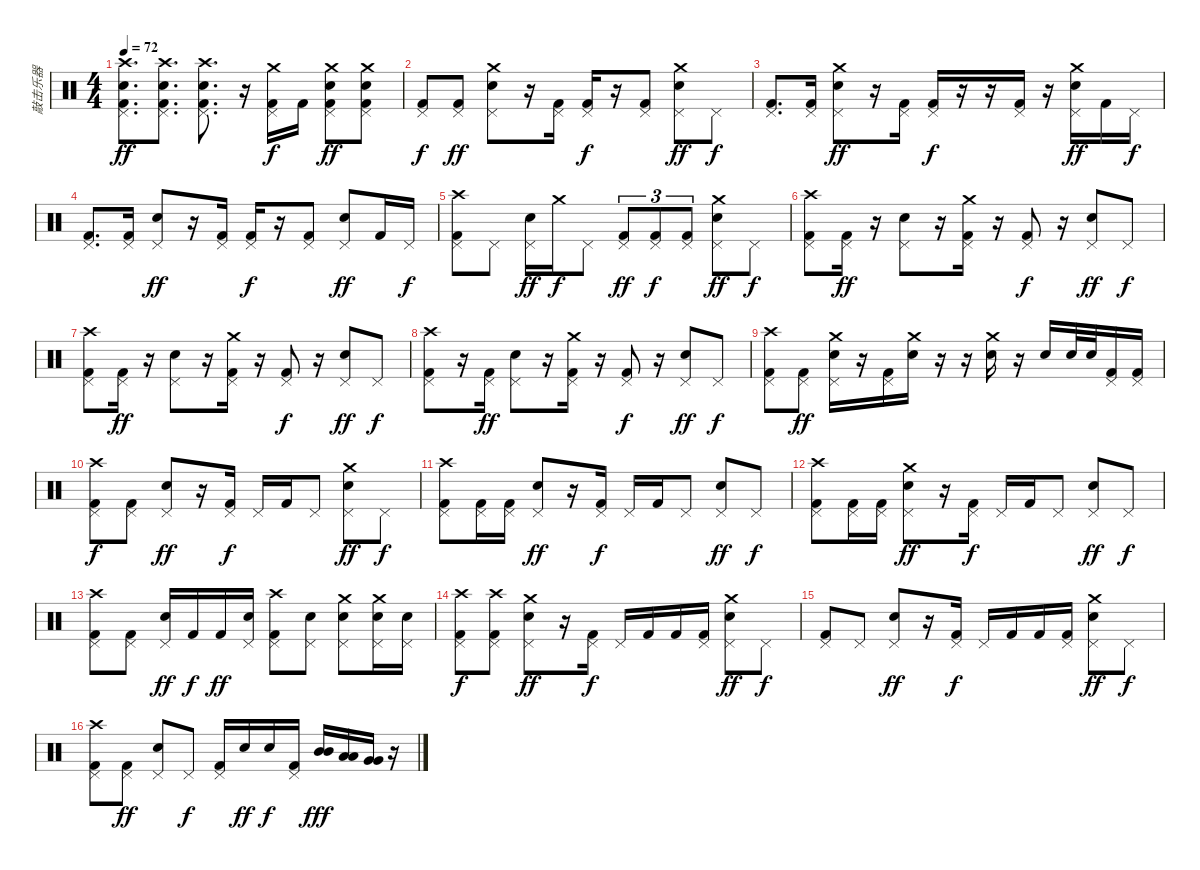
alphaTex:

\track ("敲击乐器" "敲击乐器") {instrument percussion}
\staff {score}
\articulation defaults
\ts (4 4)
\tempo 72
\clef neutral
\ks c
("Pedal Hi-Hat (hit)" "Kick (hit) 2" "Electric Snare (hit)" "Crash high (hit)").8{d dy ff} ("Pedal Hi-Hat (hit)" "Kick (hit) 2" "Electric Snare (hit)" "Crash high (hit)").8{d} ("Pedal Hi-Hat (hit)" "Kick (hit) 2" "Electric Snare (hit)" "Crash high (hit)").8{d} r.16 ("Pedal Hi-Hat (hit)" "Kick (hit) 2" "Crash medium (hit)").16{dy f} "Kick (hit) 2".16 ("Pedal Hi-Hat (hit)" "Kick (hit) 2" "Electric Snare (hit)" "Crash medium (hit)").8{dy ff} ("Pedal Hi-Hat (hit)" "Kick (hit) 2" "Electric Snare (hit)" "Crash medium (hit)").8 |
("Pedal Hi-Hat (hit)" "Kick (hit) 2").8{dy f} ("Pedal Hi-Hat (hit)" "Kick (hit) 2").8{dy ff} ("Pedal Hi-Hat (hit)" "Electric Snare (hit)" "Crash medium (hit)").8 r.16 ("Pedal Hi-Hat (hit)" "Kick (hit) 2").16 ("Pedal Hi-Hat (hit)" "Kick (hit) 2").16{dy f} r.16 ("Pedal Hi-Hat (hit)" "Kick (hit) 2").8 ("Pedal Hi-Hat (hit)" "Electric Snare (hit)" "Crash medium (hit)").8{dy ff} "Pedal Hi-Hat (hit)".8{dy f} |
("Pedal Hi-Hat (hit)" "Kick (hit) 2").8{d} ("Pedal Hi-Hat (hit)" "Kick (hit) 2").16 ("Pedal Hi-Hat (hit)" "Electric Snare (hit)" "Crash medium (hit)").8{dy ff} r.16 ("Pedal Hi-Hat (hit)" "Kick (hit) 2").16 ("Pedal Hi-Hat (hit)" "Kick (hit) 2").16{dy f} r.16 r.16 ("Pedal Hi-Hat (hit)" "Kick (hit) 2").16 r.16 ("Pedal Hi-Hat (hit)" "Electric Snare (hit)" "Crash medium (hit)").16{dy ff} "Kick (hit) 2".16 "Pedal Hi-Hat (hit)".16{dy f} |
("Pedal Hi-Hat (hit)" "Kick (hit) 2").8{d} ("Pedal Hi-Hat (hit)" "Kick (hit) 2").16 ("Pedal Hi-Hat (hit)" "Electric Snare (hit)").8{dy ff} r.16 ("Pedal Hi-Hat (hit)" "Kick (hit) 2").16 ("Pedal Hi-Hat (hit)" "Kick (hit) 2").16{dy f} r.16 ("Pedal Hi-Hat (hit)" "Kick (hit) 2").8 ("Pedal Hi-Hat (hit)" "Electric Snare (hit)").8{dy ff} "Kick (hit) 2".16 "Pedal Hi-Hat (hit)".16{dy f} |
("Pedal Hi-Hat (hit)" "Kick (hit) 2" "Crash high (hit)").8 "Pedal Hi-Hat (hit)".8 ("Pedal Hi-Hat (hit)" "Electric Snare (hit)").16{dy ff} "Crash medium (hit)".16{dy f} "Pedal Hi-Hat (hit)".8 ("Pedal Hi-Hat (hit)" "Kick (hit) 2").8{tu (3 2) dy ff} ("Pedal Hi-Hat (hit)" "Kick (hit) 2").8{tu (3 2) dy f} ("Pedal Hi-Hat (hit)" "Kick (hit) 2").8{tu (3 2)} ("Pedal Hi-Hat (hit)" "Electric Snare (hit)" "Crash medium (hit)").8{dy ff} "Pedal Hi-Hat (hit)".8{dy f} |
("Pedal Hi-Hat (hit)" "Kick (hit) 2" "Crash high (hit)").8 ("Pedal Hi-Hat (hit)" "Kick (hit) 2").16{dy ff} r.16 ("Pedal Hi-Hat (hit)" "Electric Snare (hit)").8 r.16 ("Pedal Hi-Hat (hit)" "Kick (hit) 2" "Crash medium (hit)").16 r.16 ("Pedal Hi-Hat (hit)" "Kick (hit) 2").8{dy f} r.16 ("Pedal Hi-Hat (hit)" "Electric Snare (hit)").8{dy ff} "Pedal Hi-Hat (hit)".8{dy f} |
("Pedal Hi-Hat (hit)" "Kick (hit) 2" "Crash high (hit)").8 ("Pedal Hi-Hat (hit)" "Kick (hit) 2").16{dy ff} r.16 ("Pedal Hi-Hat (hit)" "Electric Snare (hit)").8 r.16 ("Pedal Hi-Hat (hit)" "Kick (hit) 2" "Crash medium (hit)").16 r.16 ("Pedal Hi-Hat (hit)" "Kick (hit) 2").8{dy f} r.16 ("Pedal Hi-Hat (hit)" "Electric Snare (hit)").8{dy ff} "Pedal Hi-Hat (hit)".8{dy f} |
("Pedal Hi-Hat (hit)" "Kick (hit) 2" "Crash high (hit)").8 r.16 ("Pedal Hi-Hat (hit)" "Kick (hit) 2").16{dy ff} ("Pedal Hi-Hat (hit)" "Electric Snare (hit)").8 r.16 ("Pedal Hi-Hat (hit)" "Kick (hit) 2" "Crash medium (hit)").16 r.16 ("Pedal Hi-Hat (hit)" "Kick (hit) 2").8{dy f} r.16 ("Pedal Hi-Hat (hit)" "Electric Snare (hit)").8{dy ff} "Pedal Hi-Hat (hit)".8{dy f} |
("Pedal Hi-Hat (hit)" "Kick (hit) 2" "Crash high (hit)").8 ("Pedal Hi-Hat (hit)" "Kick (hit) 2").8{dy ff} ("Pedal Hi-Hat (hit)" "Electric Snare (hit)" "Crash medium (hit)").16 r.16 ("Pedal Hi-Hat (hit)" "Kick (hit) 2").16 ("Electric Snare (hit)" "Crash medium (hit)").16 r.16 r.16 ("Electric Snare (hit)" "Crash medium (hit)").16 r.16 "Electric Snare (hit)".16 "Electric Snare (hit)".32 "Electric Snare (hit)".32 ("Pedal Hi-Hat (hit)" "Kick (hit) 2").16 ("Pedal Hi-Hat (hit)" "Kick (hit) 2").16 |
("Pedal Hi-Hat (hit)" "Kick (hit) 2" "Crash high (hit)").8{dy f} ("Pedal Hi-Hat (hit)" "Kick (hit) 2").8 ("Pedal Hi-Hat (hit)" "Electric Snare (hit)").8{dy ff} r.16 ("Pedal Hi-Hat (hit)" "Kick (hit) 2").16{dy f} "Pedal Hi-Hat (hit)".16 "Kick (hit) 2".16 "Pedal Hi-Hat (hit)".8 ("Pedal Hi-Hat (hit)" "Electric Snare (hit)" "Crash medium (hit)").8{dy ff} "Pedal Hi-Hat (hit)".8{dy f} |
("Pedal Hi-Hat (hit)" "Kick (hit) 2" "Crash high (hit)").8 ("Pedal Hi-Hat (hit)" "Kick (hit) 2").16 ("Pedal Hi-Hat (hit)" "Kick (hit) 2").16 ("Pedal Hi-Hat (hit)" "Electric Snare (hit)").8{dy ff} r.16 ("Pedal Hi-Hat (hit)" "Kick (hit) 2").16{dy f} "Pedal Hi-Hat (hit)".16 "Kick (hit) 2".16 "Pedal Hi-Hat (hit)".8 ("Pedal Hi-Hat (hit)" "Electric Snare (hit)").8{dy ff} "Pedal Hi-Hat (hit)".8{dy f} |
("Pedal Hi-Hat (hit)" "Kick (hit) 2" "Crash high (hit)").8 ("Pedal Hi-Hat (hit)" "Kick (hit) 2").16 ("Pedal Hi-Hat (hit)" "Kick (hit) 2").16 ("Pedal Hi-Hat (hit)" "Electric Snare (hit)" "Crash medium (hit)").8{dy ff} r.16 ("Pedal Hi-Hat (hit)" "Kick (hit) 2").16{dy f} "Pedal Hi-Hat (hit)".16 "Kick (hit) 2".16 "Pedal Hi-Hat (hit)".8 ("Pedal Hi-Hat (hit)" "Electric Snare (hit)").8{dy ff} "Pedal Hi-Hat (hit)".8{dy f} |
("Pedal Hi-Hat (hit)" "Kick (hit) 2" "Crash high (hit)").8 ("Pedal Hi-Hat (hit)" "Kick (hit) 2").8 ("Pedal Hi-Hat (hit)" "Electric Snare (hit)").16{dy ff} "Kick (hit) 2".16{dy f} "Kick (hit) 2".16{dy ff} ("Pedal Hi-Hat (hit)" "Electric Snare (hit)").16 ("Pedal Hi-Hat (hit)" "Kick (hit) 2" "Crash high (hit)").8 ("Pedal Hi-Hat (hit)" "Electric Snare (hit)").8 ("Pedal Hi-Hat (hit)" "Electric Snare (hit)" "Crash medium (hit)").8 ("Pedal Hi-Hat (hit)" "Electric Snare (hit)" "Crash medium (hit)").16 ("Pedal Hi-Hat (hit)" "Electric Snare (hit)").16 |
("Pedal Hi-Hat (hit)" "Kick (hit) 2" "Crash high (hit)").8{dy f} ("Pedal Hi-Hat (hit)" "Kick (hit) 2" "Crash high (hit)").8 ("Pedal Hi-Hat (hit)" "Electric Snare (hit)" "Crash medium (hit)").8{dy ff} r.16 ("Pedal Hi-Hat (hit)" "Kick (hit) 2").16{dy f} "Pedal Hi-Hat (hit)".16 "Kick (hit) 2".16 "Kick (hit) 2".16 ("Pedal Hi-Hat (hit)" "Kick (hit) 2").16 ("Pedal Hi-Hat (hit)" "Electric Snare (hit)" "Crash medium (hit)").8{dy ff} "Pedal Hi-Hat (hit)".8{dy f} |
("Pedal Hi-Hat (hit)" "Kick (hit) 2").8 "Pedal Hi-Hat (hit)".8 ("Pedal Hi-Hat (hit)" "Electric Snare (hit)").8{dy ff} r.16 ("Pedal Hi-Hat (hit)" "Kick (hit) 2").16{dy f} "Pedal Hi-Hat (hit)".16 "Kick (hit) 2".16 "Kick (hit) 2".16 ("Pedal Hi-Hat (hit)" "Kick (hit) 2").16 ("Pedal Hi-Hat (hit)" "Electric Snare (hit)" "Crash medium (hit)").8{dy ff} "Pedal Hi-Hat (hit)".8{dy f} |
("Pedal Hi-Hat (hit)" "Kick (hit) 2" "Crash high (hit)").8 ("Pedal Hi-Hat (hit)" "Kick (hit) 2").8{dy ff} ("Pedal Hi-Hat (hit)" "Electric Snare (hit)").8 "Pedal Hi-Hat (hit)".8{dy f} ("Pedal Hi-Hat (hit)" "Kick (hit) 2").16 "Electric Snare (hit)".16{dy ff} "Electric Snare (hit)".16{dy f} ("Pedal Hi-Hat (hit)" "Kick (hit) 2").16 ("Mid Tom (hit)" "Mid Tom (hit)").16{dy fff} ("Low Tom (hit)" "Low Tom (hit)").16 ("Very Low Tom (hit)" "Very Low Tom (hit)").16 r.16
